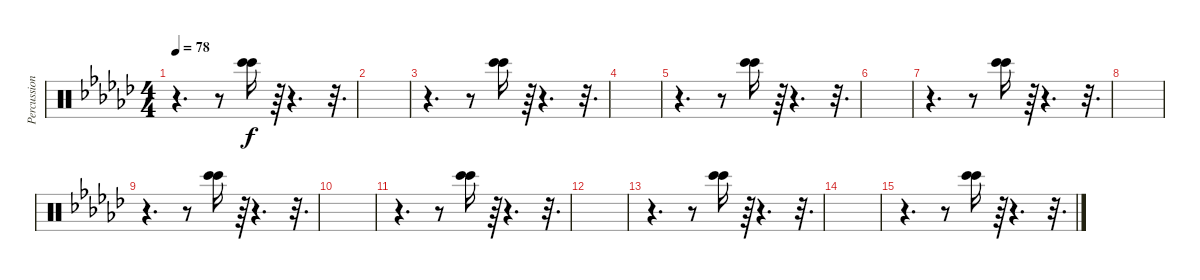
\track ("Percussions" "Percussion") {instrument percussion}
\staff {score}
\articulation defaults
\ts (4 4)
\tempo 78
\clef neutral
\ks gb
r.4{d dy f} r.8 ("Bongo High (hit)" "Bongo High (hit)").16{bd 480} r.64 r.4{d} r.32{d} |
|
r.4{d} r.8 ("Bongo High (hit)" "Bongo High (hit)").16{bd 480} r.64 r.4{d} r.32{d} |
|
r.4{d} r.8 ("Bongo High (hit)" "Bongo High (hit)").16{bd 480} r.64 r.4{d} r.32{d} |
|
r.4{d} r.8 ("Bongo High (hit)" "Bongo High (hit)").16{bd 480} r.64 r.4{d} r.32{d} |
|
r.4{d} r.8 ("Bongo High (hit)" "Bongo High (hit)").16{bd 480} r.64 r.4{d} r.32{d} |
|
r.4{d} r.8 ("Bongo High (hit)" "Bongo High (hit)").16{bd 480} r.64 r.4{d} r.32{d} |
|
r.4{d} r.8 ("Bongo High (hit)" "Bongo High (hit)").16{bd 480} r.64 r.4{d} r.32{d} |
|
r.4{d} r.8 ("Bongo High (hit)" "Bongo High (hit)").16{bd 480} r.64 r.4{d} r.32{d}
